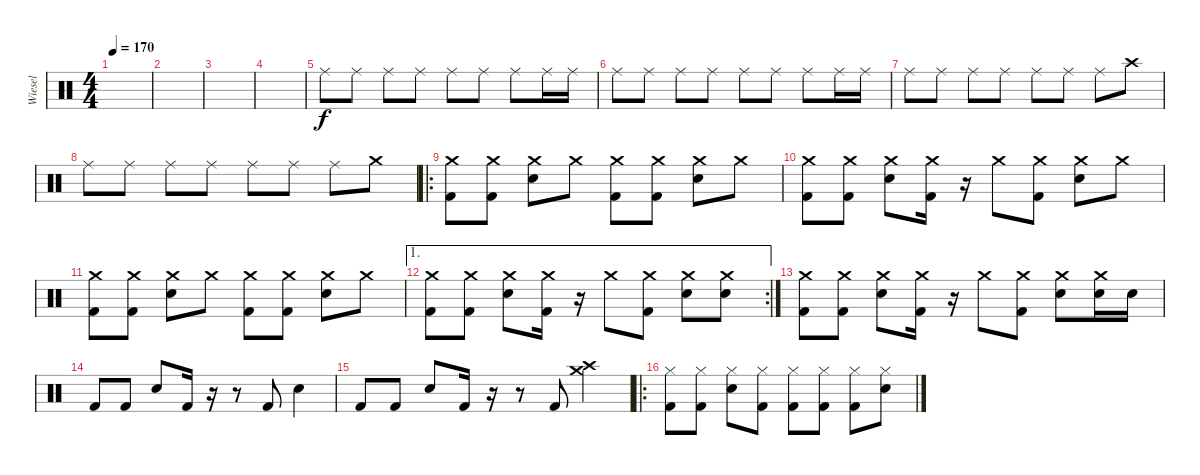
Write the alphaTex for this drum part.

\track ("Wiesel" "Wiesel") {instrument percussion}
\staff {score}
\articulation defaults
\ts (4 4)
\tempo 170
\clef neutral
\ks c
|
|
|
|
"Ride (middle)".8 "Ride (middle)".8 "Ride (middle)".8 "Ride (middle)".8 "Ride (middle)".8 "Ride (middle)".8 "Ride (middle)".8 "Ride (middle)".16 "Ride (middle)".16 |
"Ride (middle)".8 "Ride (middle)".8 "Ride (middle)".8 "Ride (middle)".8 "Ride (middle)".8 "Ride (middle)".8 "Ride (middle)".8 "Ride (middle)".16 "Ride (middle)".16 |
"Ride (middle)".8 "Ride (middle)".8 "Ride (middle)".8 "Ride (middle)".8 "Ride (middle)".8 "Ride (middle)".8 "Ride (middle)".8 "Crash high (hit)".8 |
"Ride (middle)".8 "Ride (middle)".8 "Ride (middle)".8 "Ride (middle)".8 "Ride (middle)".8 "Ride (middle)".8 "Ride (middle)".8 "Crash medium (hit)".8 |
\ro
("Crash medium (hit)" "Kick (hit) 2").8 ("Crash medium (hit)" "Kick (hit) 2").8 ("Crash medium (hit)" "Snare (hit) 2").8 "Crash medium (hit)".8 ("Crash medium (hit)" "Kick (hit) 2").8 ("Crash medium (hit)" "Kick (hit) 2").8 ("Crash medium (hit)" "Snare (hit) 2").8 "Crash medium (hit)".8 |
("Crash medium (hit)" "Kick (hit) 2").8 ("Crash medium (hit)" "Kick (hit) 2").8 ("Crash medium (hit)" "Snare (hit) 2").8 ("Crash medium (hit)" "Kick (hit) 2").16 r.16 "Crash medium (hit)".8 ("Crash medium (hit)" "Kick (hit) 2").8 ("Crash medium (hit)" "Snare (hit) 2").8 "Crash medium (hit)".8 |
("Crash medium (hit)" "Kick (hit) 2").8 ("Crash medium (hit)" "Kick (hit) 2").8 ("Crash medium (hit)" "Snare (hit) 2").8 "Crash medium (hit)".8 ("Crash medium (hit)" "Kick (hit) 2").8 ("Crash medium (hit)" "Kick (hit) 2").8 ("Crash medium (hit)" "Snare (hit) 2").8 "Crash medium (hit)".8 |
\ae 1
\rc 2
("Crash medium (hit)" "Kick (hit) 2").8 ("Crash medium (hit)" "Kick (hit) 2").8 ("Crash medium (hit)" "Snare (hit) 2").8 ("Crash medium (hit)" "Kick (hit) 2").16 r.16 "Crash medium (hit)".8 ("Crash medium (hit)" "Kick (hit) 2").8 ("Crash medium (hit)" "Snare (hit) 2").8 ("Crash medium (hit)" "Snare (hit) 2").8 |
("Crash medium (hit)" "Kick (hit) 2").8 ("Crash medium (hit)" "Kick (hit) 2").8 ("Crash medium (hit)" "Snare (hit) 2").8 ("Crash medium (hit)" "Kick (hit) 2").16 r.16 "Crash medium (hit)".8 ("Crash medium (hit)" "Kick (hit) 2").8 ("Crash medium (hit)" "Snare (hit) 2").8 ("Crash medium (hit)" "Snare (hit) 2").16 "Snare (hit) 2".16 |
"Kick (hit) 2".8 "Kick (hit) 2".8 "Snare (hit) 2".8 "Kick (hit) 2".16 r.16 r.8 "Kick (hit) 2".8 "Snare (hit) 2".4 |
"Kick (hit) 2".8 "Kick (hit) 2".8 "Snare (hit) 2".8 "Kick (hit) 2".16 r.16 r.8 "Kick (hit) 2".8 ("Crash medium (hit)" "Crash high (hit)").4 |
\ro
("Hi-Hat (closed)" "Kick (hit) 2").8 ("Hi-Hat (closed)" "Kick (hit) 2").8 ("Hi-Hat (closed)" "Snare (hit) 2").8 ("Hi-Hat (closed)" "Kick (hit) 2").8 ("Hi-Hat (closed)" "Kick (hit) 2").8 ("Hi-Hat (closed)" "Kick (hit) 2").8 ("Hi-Hat (closed)" "Kick (hit) 2").8 ("Hi-Hat (closed)" "Snare (hit) 2").8
